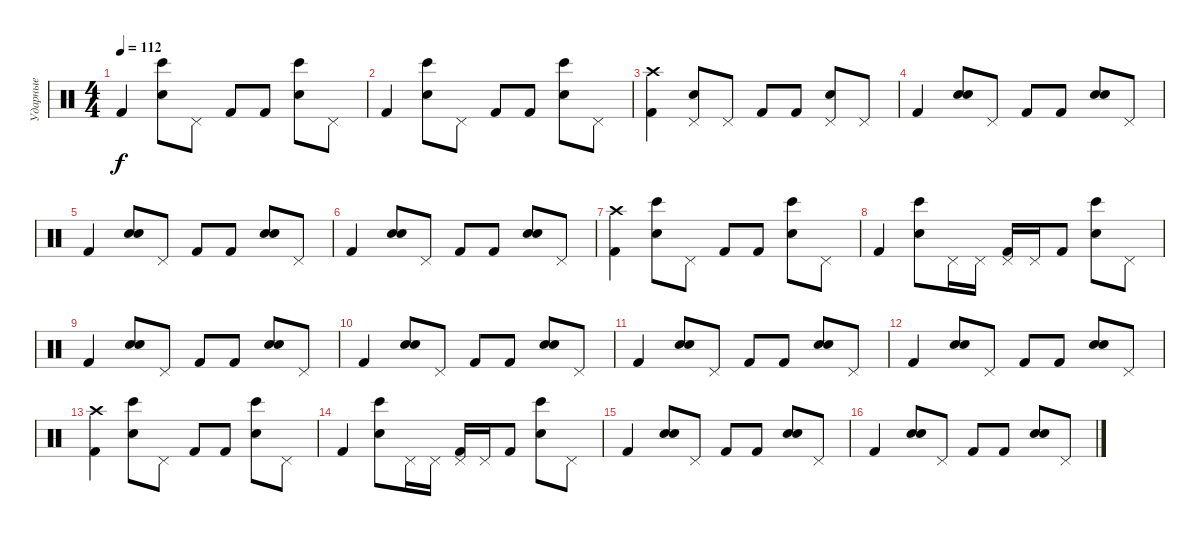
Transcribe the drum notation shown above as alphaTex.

\track ("Ударные" "Ударные") {instrument percussion}
\staff {score}
\articulation defaults
\ts (4 4)
\tempo 112
\clef neutral
\ks c "Kick (hit) 2".4{dy f}
("Bongo High (hit)" "Snare (hit) 2").8 "Pedal Hi-Hat (hit)".8 "Kick (hit) 2".8 "Kick (hit) 2".8 ("Bongo High (hit)" "Snare (hit) 2").8 "Pedal Hi-Hat (hit)".8 |
"Kick (hit) 2".4 ("Bongo High (hit)" "Snare (hit) 2").8 "Pedal Hi-Hat (hit)".8 "Kick (hit) 2".8 "Kick (hit) 2".8 ("Bongo High (hit)" "Snare (hit) 2").8 "Pedal Hi-Hat (hit)".8 |
("Crash high (hit)" "Kick (hit) 2").4 ("Pedal Hi-Hat (hit)" "Snare (hit) 2").8 "Pedal Hi-Hat (hit)".8 "Kick (hit) 2".8 "Kick (hit) 2".8 ("Pedal Hi-Hat (hit)" "Snare (hit) 2").8 "Pedal Hi-Hat (hit)".8 |
"Kick (hit) 2".4 ("Electric Snare (hit)" "Snare (hit) 2").8 "Pedal Hi-Hat (hit)".8 "Kick (hit) 2".8 "Kick (hit) 2".8 ("Electric Snare (hit)" "Snare (hit) 2").8 "Pedal Hi-Hat (hit)".8 |
"Kick (hit) 2".4 ("Electric Snare (hit)" "Snare (hit) 2").8 "Pedal Hi-Hat (hit)".8 "Kick (hit) 2".8 "Kick (hit) 2".8 ("Electric Snare (hit)" "Snare (hit) 2").8 "Pedal Hi-Hat (hit)".8 |
"Kick (hit) 2".4 ("Electric Snare (hit)" "Snare (hit) 2").8 "Pedal Hi-Hat (hit)".8 "Kick (hit) 2".8 "Kick (hit) 2".8 ("Electric Snare (hit)" "Snare (hit) 2").8 "Pedal Hi-Hat (hit)".8 |
("Crash high (hit)" "Kick (hit) 2").4 ("Bongo High (hit)" "Snare (hit) 2").8 "Pedal Hi-Hat (hit)".8 "Kick (hit) 2".8 "Kick (hit) 2".8 ("Bongo High (hit)" "Snare (hit) 2").8 "Pedal Hi-Hat (hit)".8 |
"Kick (hit) 2".4 ("Bongo High (hit)" "Snare (hit) 2").8 "Pedal Hi-Hat (hit)".16 "Pedal Hi-Hat (hit)".16 ("Pedal Hi-Hat (hit)" "Kick (hit) 2").16 "Pedal Hi-Hat (hit)".16 "Kick (hit) 2".8 ("Bongo High (hit)" "Snare (hit) 2").8 "Pedal Hi-Hat (hit)".8 |
"Kick (hit) 2".4 ("Electric Snare (hit)" "Snare (hit) 2").8 "Pedal Hi-Hat (hit)".8 "Kick (hit) 2".8 "Kick (hit) 2".8 ("Electric Snare (hit)" "Snare (hit) 2").8 "Pedal Hi-Hat (hit)".8 |
"Kick (hit) 2".4 ("Electric Snare (hit)" "Snare (hit) 2").8 "Pedal Hi-Hat (hit)".8 "Kick (hit) 2".8 "Kick (hit) 2".8 ("Electric Snare (hit)" "Snare (hit) 2").8 "Pedal Hi-Hat (hit)".8 |
"Kick (hit) 2".4 ("Electric Snare (hit)" "Snare (hit) 2").8 "Pedal Hi-Hat (hit)".8 "Kick (hit) 2".8 "Kick (hit) 2".8 ("Electric Snare (hit)" "Snare (hit) 2").8 "Pedal Hi-Hat (hit)".8 |
"Kick (hit) 2".4 ("Electric Snare (hit)" "Snare (hit) 2").8 "Pedal Hi-Hat (hit)".8 "Kick (hit) 2".8 "Kick (hit) 2".8 ("Electric Snare (hit)" "Snare (hit) 2").8 "Pedal Hi-Hat (hit)".8 |
("Crash high (hit)" "Kick (hit) 2").4 ("Bongo High (hit)" "Snare (hit) 2").8 "Pedal Hi-Hat (hit)".8 "Kick (hit) 2".8 "Kick (hit) 2".8 ("Bongo High (hit)" "Snare (hit) 2").8 "Pedal Hi-Hat (hit)".8 |
"Kick (hit) 2".4 ("Bongo High (hit)" "Snare (hit) 2").8 "Pedal Hi-Hat (hit)".16 "Pedal Hi-Hat (hit)".16 ("Pedal Hi-Hat (hit)" "Kick (hit) 2").16 "Pedal Hi-Hat (hit)".16 "Kick (hit) 2".8 ("Bongo High (hit)" "Snare (hit) 2").8 "Pedal Hi-Hat (hit)".8 |
"Kick (hit) 2".4 ("Electric Snare (hit)" "Snare (hit) 2").8 "Pedal Hi-Hat (hit)".8 "Kick (hit) 2".8 "Kick (hit) 2".8 ("Electric Snare (hit)" "Snare (hit) 2").8 "Pedal Hi-Hat (hit)".8 |
"Kick (hit) 2".4 ("Electric Snare (hit)" "Snare (hit) 2").8 "Pedal Hi-Hat (hit)".8 "Kick (hit) 2".8 "Kick (hit) 2".8 ("Electric Snare (hit)" "Snare (hit) 2").8 "Pedal Hi-Hat (hit)".8
